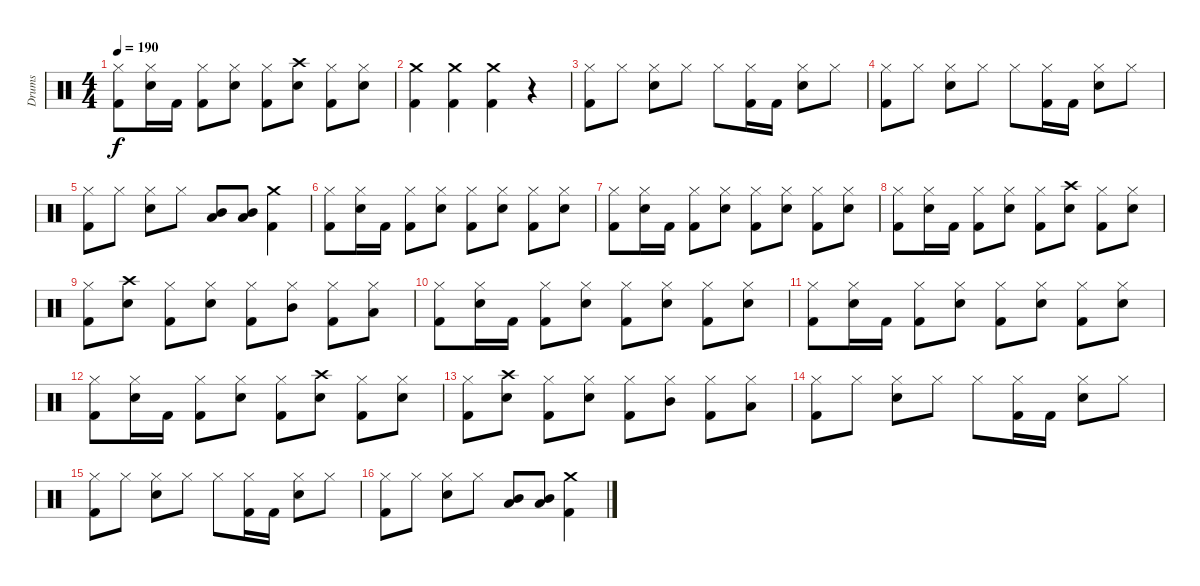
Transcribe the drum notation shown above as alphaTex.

\track ("Drums" "Drums") {instrument percussion}
\staff {score}
\articulation defaults
\ts (4 4)
\tempo 190
\clef neutral
\ks c
("Kick (hit) 2" "Hi-Hat (closed)").8{dy f} ("Snare (hit) 2" "Hi-Hat (closed)").16 "Kick (hit) 2".16 ("Kick (hit) 2" "Hi-Hat (closed)").8 ("Snare (hit) 2" "Hi-Hat (closed)").8 ("Kick (hit) 2" "Hi-Hat (closed)").8 ("Snare (hit) 2" "Crash high (hit)").8 ("Kick (hit) 2" "Hi-Hat (closed)").8 ("Snare (hit) 2" "Hi-Hat (closed)").8 |
("Crash medium (hit)" "Kick (hit) 2").4 ("Crash medium (hit)" "Kick (hit) 2").4 ("Crash medium (hit)" "Kick (hit) 2").4 r.4 |
("Kick (hit) 2" "Hi-Hat (closed)").8 "Hi-Hat (closed)".8 ("Snare (hit) 2" "Hi-Hat (closed)").8 "Hi-Hat (closed)".8 "Hi-Hat (closed)".8 ("Kick (hit) 2" "Hi-Hat (closed)").16 "Kick (hit) 2".16 ("Snare (hit) 2" "Hi-Hat (closed)").8 "Hi-Hat (closed)".8 |
("Kick (hit) 2" "Hi-Hat (closed)").8 "Hi-Hat (closed)".8 ("Snare (hit) 2" "Hi-Hat (closed)").8 "Hi-Hat (closed)".8 "Hi-Hat (closed)".8 ("Kick (hit) 2" "Hi-Hat (closed)").16 "Kick (hit) 2".16 ("Snare (hit) 2" "Hi-Hat (closed)").8 "Hi-Hat (closed)".8 |
("Kick (hit) 2" "Hi-Hat (closed)").8 "Hi-Hat (closed)".8 ("Snare (hit) 2" "Hi-Hat (closed)").8 "Hi-Hat (closed)".8 ("Mid Tom (hit)" "Low Tom (hit)").8{bd 240} ("Mid Tom (hit)" "Low Tom (hit)").8{bu 240} ("Crash medium (hit)" "Kick (hit) 2").4 |
("Kick (hit) 2" "Hi-Hat (closed)").8 ("Snare (hit) 2" "Hi-Hat (closed)").16 "Kick (hit) 2".16 ("Kick (hit) 2" "Hi-Hat (closed)").8 ("Snare (hit) 2" "Hi-Hat (closed)").8 ("Kick (hit) 2" "Hi-Hat (closed)").8 ("Snare (hit) 2" "Hi-Hat (closed)").8 ("Kick (hit) 2" "Hi-Hat (closed)").8 ("Snare (hit) 2" "Hi-Hat (closed)").8 |
("Kick (hit) 2" "Hi-Hat (closed)").8 ("Snare (hit) 2" "Hi-Hat (closed)").16 "Kick (hit) 2".16 ("Kick (hit) 2" "Hi-Hat (closed)").8 ("Snare (hit) 2" "Hi-Hat (closed)").8 ("Kick (hit) 2" "Hi-Hat (closed)").8 ("Snare (hit) 2" "Hi-Hat (closed)").8 ("Kick (hit) 2" "Hi-Hat (closed)").8 ("Snare (hit) 2" "Hi-Hat (closed)").8 |
("Kick (hit) 2" "Hi-Hat (closed)").8 ("Snare (hit) 2" "Hi-Hat (closed)").16 "Kick (hit) 2".16 ("Kick (hit) 2" "Hi-Hat (closed)").8 ("Snare (hit) 2" "Hi-Hat (closed)").8 ("Kick (hit) 2" "Hi-Hat (closed)").8 ("Snare (hit) 2" "Crash high (hit)").8 ("Kick (hit) 2" "Hi-Hat (closed)").8 ("Snare (hit) 2" "Hi-Hat (closed)").8 |
("Kick (hit) 2" "Hi-Hat (closed)").8 ("Snare (hit) 2" "Crash high (hit)").8 ("Kick (hit) 2" "Hi-Hat (closed)").8 ("Snare (hit) 2" "Hi-Hat (closed)").8 ("Kick (hit) 2" "Hi-Hat (closed)").8 ("Hi-Hat (closed)" "Mid Tom (hit)").8 ("Kick (hit) 2" "Hi-Hat (closed)").8 ("Hi-Hat (closed)" "Low Tom (hit)").8 |
("Kick (hit) 2" "Hi-Hat (closed)").8 ("Snare (hit) 2" "Hi-Hat (closed)").16 "Kick (hit) 2".16 ("Kick (hit) 2" "Hi-Hat (closed)").8 ("Snare (hit) 2" "Hi-Hat (closed)").8 ("Kick (hit) 2" "Hi-Hat (closed)").8 ("Snare (hit) 2" "Hi-Hat (closed)").8 ("Kick (hit) 2" "Hi-Hat (closed)").8 ("Snare (hit) 2" "Hi-Hat (closed)").8 |
("Kick (hit) 2" "Hi-Hat (closed)").8 ("Snare (hit) 2" "Hi-Hat (closed)").16 "Kick (hit) 2".16 ("Kick (hit) 2" "Hi-Hat (closed)").8 ("Snare (hit) 2" "Hi-Hat (closed)").8 ("Kick (hit) 2" "Hi-Hat (closed)").8 ("Snare (hit) 2" "Hi-Hat (closed)").8 ("Kick (hit) 2" "Hi-Hat (closed)").8 ("Snare (hit) 2" "Hi-Hat (closed)").8 |
("Kick (hit) 2" "Hi-Hat (closed)").8 ("Snare (hit) 2" "Hi-Hat (closed)").16 "Kick (hit) 2".16 ("Kick (hit) 2" "Hi-Hat (closed)").8 ("Snare (hit) 2" "Hi-Hat (closed)").8 ("Kick (hit) 2" "Hi-Hat (closed)").8 ("Snare (hit) 2" "Crash high (hit)").8 ("Kick (hit) 2" "Hi-Hat (closed)").8 ("Snare (hit) 2" "Hi-Hat (closed)").8 |
("Kick (hit) 2" "Hi-Hat (closed)").8 ("Snare (hit) 2" "Crash high (hit)").8 ("Kick (hit) 2" "Hi-Hat (closed)").8 ("Snare (hit) 2" "Hi-Hat (closed)").8 ("Kick (hit) 2" "Hi-Hat (closed)").8 ("Hi-Hat (closed)" "Mid Tom (hit)").8 ("Kick (hit) 2" "Hi-Hat (closed)").8 ("Hi-Hat (closed)" "Low Tom (hit)").8 |
("Kick (hit) 2" "Hi-Hat (closed)").8 "Hi-Hat (closed)".8 ("Snare (hit) 2" "Hi-Hat (closed)").8 "Hi-Hat (closed)".8 "Hi-Hat (closed)".8 ("Kick (hit) 2" "Hi-Hat (closed)").16 "Kick (hit) 2".16 ("Snare (hit) 2" "Hi-Hat (closed)").8 "Hi-Hat (closed)".8 |
("Kick (hit) 2" "Hi-Hat (closed)").8 "Hi-Hat (closed)".8 ("Snare (hit) 2" "Hi-Hat (closed)").8 "Hi-Hat (closed)".8 "Hi-Hat (closed)".8 ("Kick (hit) 2" "Hi-Hat (closed)").16 "Kick (hit) 2".16 ("Snare (hit) 2" "Hi-Hat (closed)").8 "Hi-Hat (closed)".8 |
("Kick (hit) 2" "Hi-Hat (closed)").8 "Hi-Hat (closed)".8 ("Snare (hit) 2" "Hi-Hat (closed)").8 "Hi-Hat (closed)".8 ("Mid Tom (hit)" "Low Tom (hit)").8{bd 240} ("Mid Tom (hit)" "Low Tom (hit)").8{bu 240} ("Crash medium (hit)" "Kick (hit) 2").4
